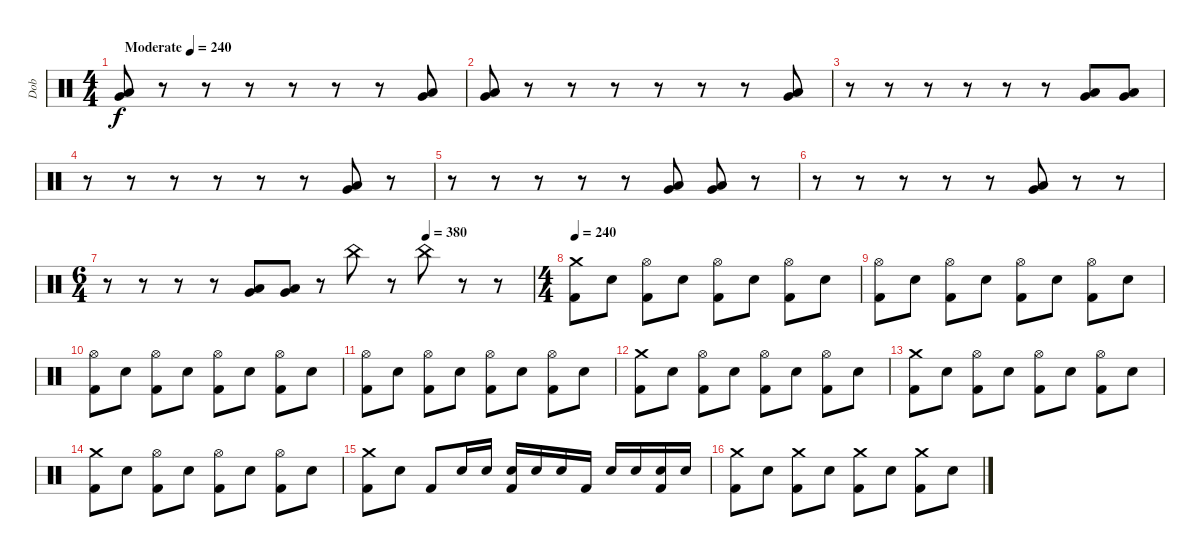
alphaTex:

\track ("Dob" "Dob") {instrument percussion}
\staff {score}
\articulation defaults
\ts (4 4)
\tempo (240 "Moderate")
\clef neutral
\ks c
("Low Tom (hit)" "Very Low Tom (hit)").8{dy f} r.8 r.8 r.8 r.8 r.8 r.8 ("Low Tom (hit)" "Very Low Tom (hit)").8 |
("Low Tom (hit)" "Very Low Tom (hit)").8 r.8 r.8 r.8 r.8 r.8 r.8 ("Low Tom (hit)" "Very Low Tom (hit)").8 |
r.8 r.8 r.8 r.8 r.8 r.8 ("Low Tom (hit)" "Very Low Tom (hit)").8 ("Low Tom (hit)" "Very Low Tom (hit)").8 |
r.8 r.8 r.8 r.8 r.8 r.8 ("Low Tom (hit)" "Very Low Tom (hit)").8 r.8 |
r.8 r.8 r.8 r.8 r.8 ("Low Tom (hit)" "Very Low Tom (hit)").8 ("Low Tom (hit)" "Very Low Tom (hit)").8 r.8 |
r.8 r.8 r.8 r.8 r.8 ("Low Tom (hit)" "Very Low Tom (hit)").8 r.8 r.8 |
\ts (6 4)
\tempo (380 0.75)
r.8 r.8 r.8 r.8 ("Low Tom (hit)" "Very Low Tom (hit)").8 ("Low Tom (hit)" "Very Low Tom (hit)").8 r.8 "China (hit)".8 r.8 "China (hit)".8 r.8 r.8 |
\ts (4 4)
\tempo 240
("Crash medium (hit)" "Kick (hit) 2").8 "Electric Snare (hit)".8 ("Hi-Hat (open)" "Kick (hit) 2").8 "Electric Snare (hit)".8 ("Hi-Hat (open)" "Kick (hit) 2").8 "Electric Snare (hit)".8 ("Hi-Hat (open)" "Kick (hit) 2").8 "Electric Snare (hit)".8 |
("Hi-Hat (open)" "Kick (hit) 2").8 "Electric Snare (hit)".8 ("Hi-Hat (open)" "Kick (hit) 2").8 "Electric Snare (hit)".8 ("Hi-Hat (open)" "Kick (hit) 2").8 "Electric Snare (hit)".8 ("Hi-Hat (open)" "Kick (hit) 2").8 "Electric Snare (hit)".8 |
("Hi-Hat (open)" "Kick (hit) 2").8 "Electric Snare (hit)".8 ("Hi-Hat (open)" "Kick (hit) 2").8 "Electric Snare (hit)".8 ("Hi-Hat (open)" "Kick (hit) 2").8 "Electric Snare (hit)".8 ("Hi-Hat (open)" "Kick (hit) 2").8 "Electric Snare (hit)".8 |
("Hi-Hat (open)" "Kick (hit) 2").8 "Electric Snare (hit)".8 ("Hi-Hat (open)" "Kick (hit) 2").8 "Electric Snare (hit)".8 ("Hi-Hat (open)" "Kick (hit) 2").8 "Electric Snare (hit)".8 ("Hi-Hat (open)" "Kick (hit) 2").8 "Electric Snare (hit)".8 |
("Crash medium (hit)" "Kick (hit) 2").8 "Electric Snare (hit)".8 ("Hi-Hat (open)" "Kick (hit) 2").8 "Electric Snare (hit)".8 ("Hi-Hat (open)" "Kick (hit) 2").8 "Electric Snare (hit)".8 ("Hi-Hat (open)" "Kick (hit) 2").8 "Electric Snare (hit)".8 |
("Crash medium (hit)" "Kick (hit) 2").8 "Electric Snare (hit)".8 ("Hi-Hat (open)" "Kick (hit) 2").8 "Electric Snare (hit)".8 ("Hi-Hat (open)" "Kick (hit) 2").8 "Electric Snare (hit)".8 ("Hi-Hat (open)" "Kick (hit) 2").8 "Electric Snare (hit)".8 |
("Crash medium (hit)" "Kick (hit) 2").8 "Electric Snare (hit)".8 ("Hi-Hat (open)" "Kick (hit) 2").8 "Electric Snare (hit)".8 ("Hi-Hat (open)" "Kick (hit) 2").8 "Electric Snare (hit)".8 ("Hi-Hat (open)" "Kick (hit) 2").8 "Electric Snare (hit)".8 |
("Crash medium (hit)" "Kick (hit) 2").8 "Electric Snare (hit)".8 "Kick (hit) 2".8 "Electric Snare (hit)".16 "Electric Snare (hit)".16 ("Electric Snare (hit)" "Kick (hit) 2").16 "Electric Snare (hit)".16 "Electric Snare (hit)".16 "Kick (hit) 2".16 "Electric Snare (hit)".16 "Electric Snare (hit)".16 ("Electric Snare (hit)" "Kick (hit) 2").16 "Electric Snare (hit)".16 |
("Crash medium (hit)" "Kick (hit) 2").8 "Electric Snare (hit)".8 ("Crash medium (hit)" "Kick (hit) 2").8 "Electric Snare (hit)".8 ("Crash medium (hit)" "Kick (hit) 2").8 "Electric Snare (hit)".8 ("Crash medium (hit)" "Kick (hit) 2").8 "Electric Snare (hit)".8
